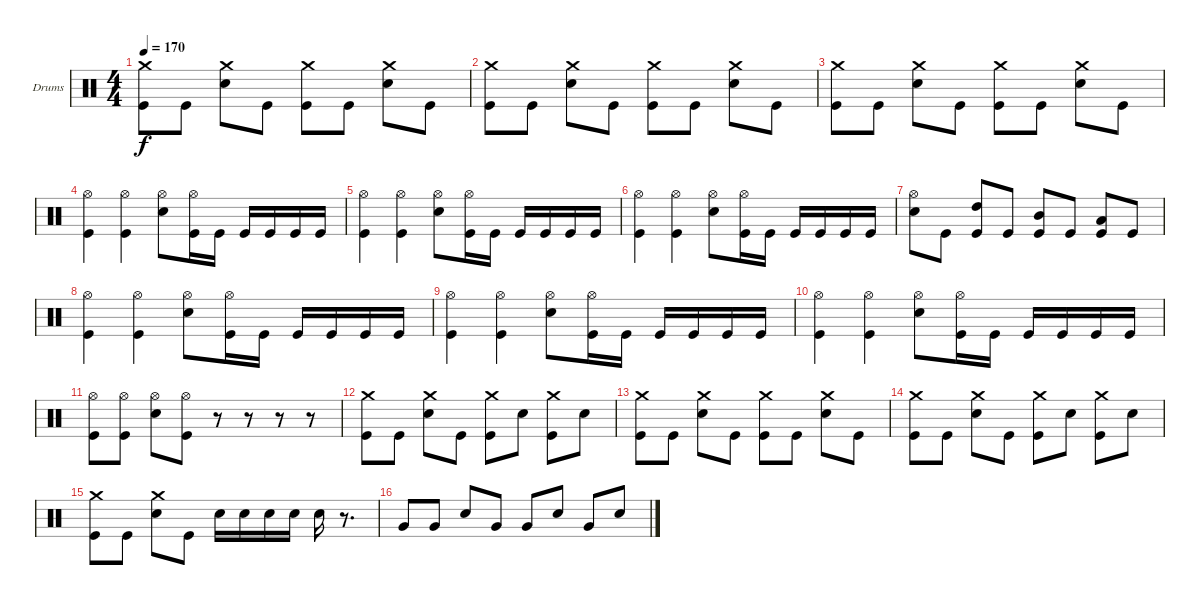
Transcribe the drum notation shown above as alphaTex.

\defaultSystemsLayout 4
\bracketExtendMode groupsimilarinstruments
\firstSystemTrackNameOrientation horizontal
\otherSystemsTrackNameOrientation horizontal
\track ("Drumkit" "Drums") {instrument percussion}
\staff {score}
\articulation defaults
\ts (4 4)
\tempo 170
\clef neutral
\scale
0.333333
\ks c
("Crash medium (hit)" "Kick (hit)").8{dy f} "Kick (hit)".8 ("Crash medium (hit)" "Snare (hit) 2").8 "Kick (hit)".8 ("Crash medium (hit)" "Kick (hit)").8 "Kick (hit)".8 ("Crash medium (hit)" "Snare (hit) 2").8 "Kick (hit)".8 |
\scale
0.333333 ("Crash medium (hit)" "Kick (hit)").8 "Kick (hit)".8 ("Crash medium (hit)" "Snare (hit) 2").8 "Kick (hit)".8 ("Crash medium (hit)" "Kick (hit)").8 "Kick (hit)".8 ("Crash medium (hit)" "Snare (hit) 2").8 "Kick (hit)".8 |
\scale
0.333333 ("Crash medium (hit)" "Kick (hit)").8 "Kick (hit)".8 ("Crash medium (hit)" "Snare (hit) 2").8 "Kick (hit)".8 ("Crash medium (hit)" "Kick (hit)").8 "Kick (hit)".8 ("Crash medium (hit)" "Snare (hit) 2").8 "Kick (hit)".8 |
\scale
0.333333 ("Hi-Hat (open)" "Kick (hit)").4 ("Hi-Hat (open)" "Kick (hit)").4 ("Hi-Hat (open)" "Snare (hit) 2").8 ("Hi-Hat (open)" "Kick (hit)").16 "Kick (hit)".16 "Kick (hit)".16 "Kick (hit)".16 "Kick (hit)".16 "Kick (hit)".16 |
\scale
0.333333 ("Hi-Hat (open)" "Kick (hit)").4 ("Hi-Hat (open)" "Kick (hit)").4 ("Hi-Hat (open)" "Snare (hit) 2").8 ("Hi-Hat (open)" "Kick (hit)").16 "Kick (hit)".16 "Kick (hit)".16 "Kick (hit)".16 "Kick (hit)".16 "Kick (hit)".16 |
\scale
0.333333 ("Hi-Hat (open)" "Kick (hit)").4 ("Hi-Hat (open)" "Kick (hit)").4 ("Hi-Hat (open)" "Snare (hit) 2").8 ("Hi-Hat (open)" "Kick (hit)").16 "Kick (hit)".16 "Kick (hit)".16 "Kick (hit)".16 "Kick (hit)".16 "Kick (hit)".16 |
\scale
0.333333 ("Hi-Hat (open)" "Snare (hit) 2").8 "Kick (hit)".8 ("High Tom (hit)" "Kick (hit)").8 "Kick (hit)".8 ("Mid Tom (hit)" "Kick (hit)").8 "Kick (hit)".8 ("Low Tom (hit)" "Kick (hit)").8 "Kick (hit)".8 |
\scale
0.333333 ("Hi-Hat (open)" "Kick (hit)").4 ("Hi-Hat (open)" "Kick (hit)").4 ("Hi-Hat (open)" "Snare (hit) 2").8 ("Hi-Hat (open)" "Kick (hit)").16 "Kick (hit)".16 "Kick (hit)".16 "Kick (hit)".16 "Kick (hit)".16 "Kick (hit)".16 |
\scale
0.333333 ("Hi-Hat (open)" "Kick (hit)").4 ("Hi-Hat (open)" "Kick (hit)").4 ("Hi-Hat (open)" "Snare (hit) 2").8 ("Hi-Hat (open)" "Kick (hit)").16 "Kick (hit)".16 "Kick (hit)".16 "Kick (hit)".16 "Kick (hit)".16 "Kick (hit)".16 |
\scale
0.333333 ("Hi-Hat (open)" "Kick (hit)").4 ("Hi-Hat (open)" "Kick (hit)").4 ("Hi-Hat (open)" "Snare (hit) 2").8 ("Hi-Hat (open)" "Kick (hit)").16 "Kick (hit)".16 "Kick (hit)".16 "Kick (hit)".16 "Kick (hit)".16 "Kick (hit)".16 |
\scale
0.333333 ("Hi-Hat (open)" "Kick (hit)").8 ("Hi-Hat (open)" "Kick (hit)").8 ("Hi-Hat (open)" "Snare (hit) 2").8 ("Hi-Hat (open)" "Kick (hit)").8 r.8 r.8 r.8 r.8 |
\scale
0.333333 ("Crash medium (hit)" "Kick (hit)").8 "Kick (hit)".8 ("Crash medium (hit)" "Snare (hit) 2").8 "Kick (hit)".8 ("Crash medium (hit)" "Kick (hit)").8 "Snare (hit) 2".8 ("Crash medium (hit)" "Kick (hit)").8 "Snare (hit) 2".8 |
\scale
0.333333 ("Crash medium (hit)" "Kick (hit)").8 "Kick (hit)".8 ("Crash medium (hit)" "Snare (hit) 2").8 "Kick (hit)".8 ("Crash medium (hit)" "Kick (hit)").8 "Kick (hit)".8 ("Crash medium (hit)" "Snare (hit) 2").8 "Kick (hit)".8 |
\scale
0.333333 ("Crash medium (hit)" "Kick (hit)").8 "Kick (hit)".8 ("Crash medium (hit)" "Snare (hit) 2").8 "Kick (hit)".8 ("Crash medium (hit)" "Kick (hit)").8 "Snare (hit) 2".8 ("Crash medium (hit)" "Kick (hit)").8 "Snare (hit) 2".8 |
\scale
0.333333 ("Crash medium (hit)" "Kick (hit)").8 "Kick (hit)".8 ("Crash medium (hit)" "Snare (hit) 2").8 "Kick (hit)".8 "Snare (hit) 2".16 "Snare (hit) 2".16 "Snare (hit) 2".16 "Snare (hit) 2".16 "Snare (hit) 2".16 r.8{d} |
\scale
0.333333 "Very Low Tom (hit)".8 "Very Low Tom (hit)".8 "Snare (hit) 2".8 "Very Low Tom (hit)".8 "Very Low Tom (hit)".8 "Snare (hit) 2".8 "Very Low Tom (hit)".8 "Snare (hit) 2".8
